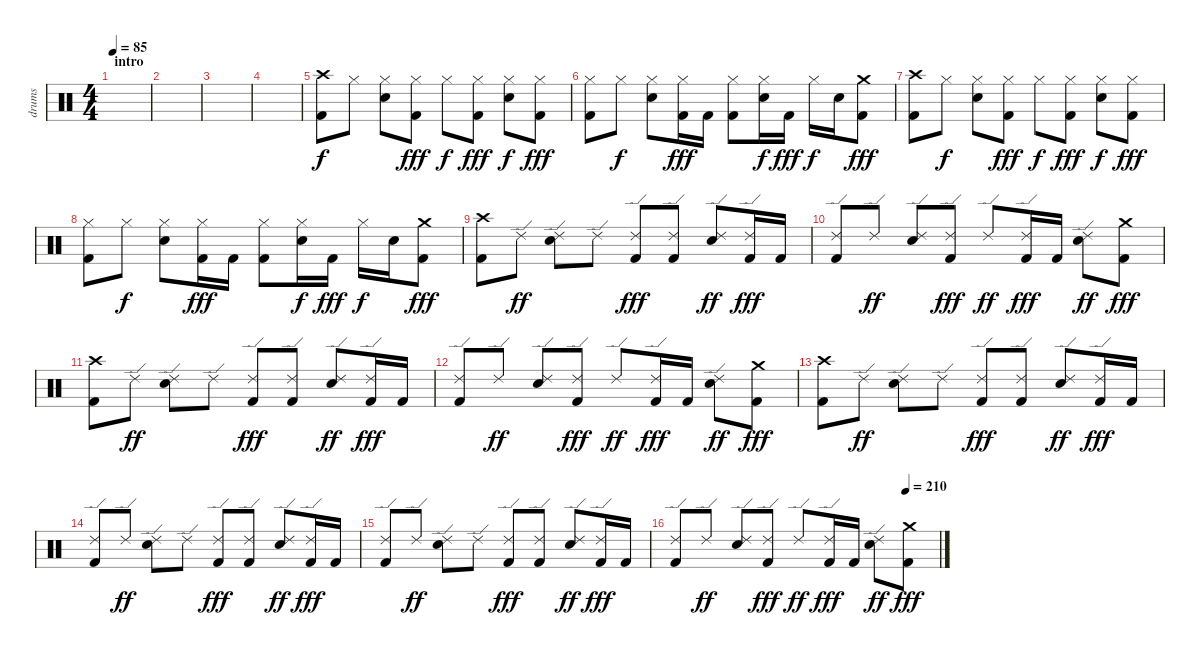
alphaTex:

\track ("drums" "drums") {instrument percussion}
\staff {score}
\articulation defaults
\ts (4 4)
\section ("" "intro")
\tempo 85
\clef neutral
\ks c
|
|
|
|
("Crash high (hit)" "Kick (hit) 2").8 "Hi-Hat (closed)".8{dy f} ("Hi-Hat (closed)" "Snare (hit) 2").8 ("Hi-Hat (closed)" "Kick (hit) 2").8{dy fff} "Hi-Hat (closed)".8{dy f} ("Hi-Hat (closed)" "Kick (hit) 2").8{dy fff} ("Hi-Hat (closed)" "Snare (hit) 2").8{dy f} ("Hi-Hat (closed)" "Kick (hit) 2").8{dy fff} |
("Hi-Hat (closed)" "Kick (hit) 2").8 "Hi-Hat (closed)".8{dy f} ("Hi-Hat (closed)" "Snare (hit) 2").8 ("Hi-Hat (closed)" "Kick (hit) 2").16{dy fff} "Kick (hit) 2".16 ("Hi-Hat (closed)" "Kick (hit) 2").8 ("Hi-Hat (closed)" "Snare (hit) 2").16{dy f} "Kick (hit) 2".16{dy fff} "Hi-Hat (closed)".16{dy f} "Snare (hit) 2".16 ("Crash medium (hit)" "Kick (hit) 2").8{dy fff} |
("Crash high (hit)" "Kick (hit) 2").8 "Hi-Hat (closed)".8{dy f} ("Hi-Hat (closed)" "Snare (hit) 2").8 ("Hi-Hat (closed)" "Kick (hit) 2").8{dy fff} "Hi-Hat (closed)".8{dy f} ("Hi-Hat (closed)" "Kick (hit) 2").8{dy fff} ("Hi-Hat (closed)" "Snare (hit) 2").8{dy f} ("Hi-Hat (closed)" "Kick (hit) 2").8{dy fff} |
("Hi-Hat (closed)" "Kick (hit) 2").8 "Hi-Hat (closed)".8{dy f} ("Hi-Hat (closed)" "Snare (hit) 2").8 ("Hi-Hat (closed)" "Kick (hit) 2").16{dy fff} "Kick (hit) 2".16 ("Hi-Hat (closed)" "Kick (hit) 2").8 ("Hi-Hat (closed)" "Snare (hit) 2").16{dy f} "Kick (hit) 2".16{dy fff} "Hi-Hat (closed)".16{dy f} "Snare (hit) 2".16 ("Crash medium (hit)" "Kick (hit) 2").8{dy fff} |
("Crash high (hit)" "Kick (hit) 2").8 "Ride (edge) 2".8{dy ff} ("Ride (edge) 2" "Snare (hit) 2").8 "Ride (edge) 2".8 ("Ride (edge) 2" "Kick (hit) 2").8{dy fff} ("Ride (edge) 2" "Kick (hit) 2").8 ("Ride (edge) 2" "Snare (hit) 2").8{dy ff} ("Ride (edge) 2" "Kick (hit) 2").16{dy fff} "Kick (hit) 2".16 |
("Ride (edge) 2" "Kick (hit) 2").8 "Ride (edge) 2".8{dy ff} ("Ride (edge) 2" "Snare (hit) 2").8 ("Ride (edge) 2" "Kick (hit) 2").8{dy fff} "Ride (edge) 2".8{dy ff} ("Ride (edge) 2" "Kick (hit) 2").16{dy fff} "Kick (hit) 2".16 ("Ride (edge) 2" "Snare (hit) 2").8{dy ff} ("Crash medium (hit)" "Kick (hit) 2").8{dy fff} |
("Crash high (hit)" "Kick (hit) 2").8 "Ride (edge) 2".8{dy ff} ("Ride (edge) 2" "Snare (hit) 2").8 "Ride (edge) 2".8 ("Ride (edge) 2" "Kick (hit) 2").8{dy fff} ("Ride (edge) 2" "Kick (hit) 2").8 ("Ride (edge) 2" "Snare (hit) 2").8{dy ff} ("Ride (edge) 2" "Kick (hit) 2").16{dy fff} "Kick (hit) 2".16 |
("Ride (edge) 2" "Kick (hit) 2").8 "Ride (edge) 2".8{dy ff} ("Ride (edge) 2" "Snare (hit) 2").8 ("Ride (edge) 2" "Kick (hit) 2").8{dy fff} "Ride (edge) 2".8{dy ff} ("Ride (edge) 2" "Kick (hit) 2").16{dy fff} "Kick (hit) 2".16 ("Ride (edge) 2" "Snare (hit) 2").8{dy ff} ("Crash medium (hit)" "Kick (hit) 2").8{dy fff} |
("Crash high (hit)" "Kick (hit) 2").8 "Ride (edge) 2".8{dy ff} ("Ride (edge) 2" "Snare (hit) 2").8 "Ride (edge) 2".8 ("Ride (edge) 2" "Kick (hit) 2").8{dy fff} ("Ride (edge) 2" "Kick (hit) 2").8 ("Ride (edge) 2" "Snare (hit) 2").8{dy ff} ("Ride (edge) 2" "Kick (hit) 2").16{dy fff} "Kick (hit) 2".16 |
("Ride (edge) 2" "Kick (hit) 2").8 "Ride (edge) 2".8{dy ff} ("Ride (edge) 2" "Snare (hit) 2").8 "Ride (edge) 2".8 ("Ride (edge) 2" "Kick (hit) 2").8{dy fff} ("Ride (edge) 2" "Kick (hit) 2").8 ("Ride (edge) 2" "Snare (hit) 2").8{dy ff} ("Ride (edge) 2" "Kick (hit) 2").16{dy fff} "Kick (hit) 2".16 |
("Ride (edge) 2" "Kick (hit) 2").8 "Ride (edge) 2".8{dy ff} ("Ride (edge) 2" "Snare (hit) 2").8 "Ride (edge) 2".8 ("Ride (edge) 2" "Kick (hit) 2").8{dy fff} ("Ride (edge) 2" "Kick (hit) 2").8 ("Ride (edge) 2" "Snare (hit) 2").8{dy ff} ("Ride (edge) 2" "Kick (hit) 2").16{dy fff} "Kick (hit) 2".16 |
\tempo (210 0.875)
("Ride (edge) 2" "Kick (hit) 2").8 "Ride (edge) 2".8{dy ff} ("Ride (edge) 2" "Snare (hit) 2").8 ("Ride (edge) 2" "Kick (hit) 2").8{dy fff} "Ride (edge) 2".8{dy ff} ("Ride (edge) 2" "Kick (hit) 2").16{dy fff} "Kick (hit) 2".16 ("Ride (edge) 2" "Snare (hit) 2").8{dy ff} ("Crash medium (hit)" "Kick (hit) 2").8{dy fff}
